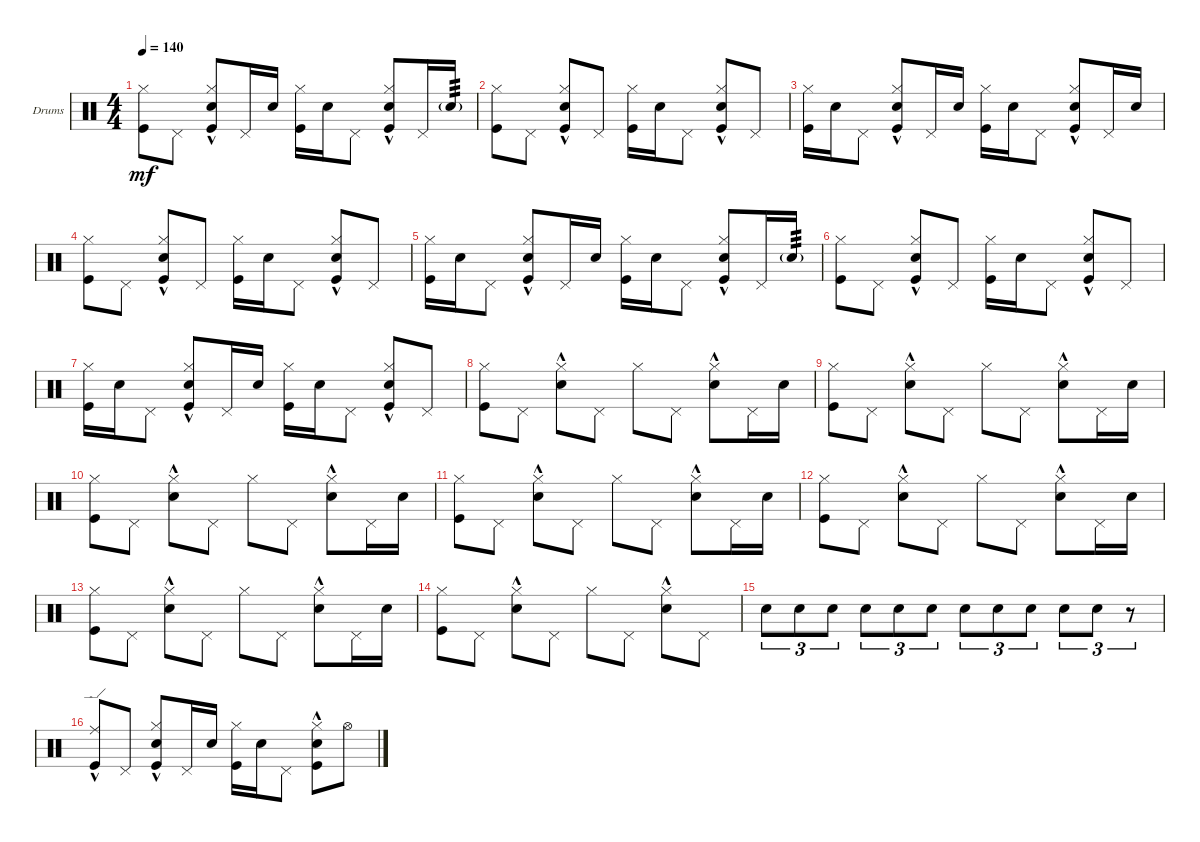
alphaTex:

\defaultSystemsLayout 4
\bracketExtendMode groupsimilarinstruments
\firstSystemTrackNameOrientation horizontal
\otherSystemsTrackNameOrientation horizontal
\track ("Drumkit" "Drums") {instrument percussion}
\staff {score}
\articulation defaults
\ts (4 4)
\tempo 140
\clef neutral
\scale
0.258599
\ks c
("Kick (hit)" "Hi-Hat (closed)").8{dy mf} "Pedal Hi-Hat (hit)".8 ("Hi-Hat (closed)" "Kick (hit)" "Snare (hit) 2"{hac}).8 "Pedal Hi-Hat (hit)".16 "Snare (hit) 2".16 ("Kick (hit)" "Hi-Hat (closed)").16 "Snare (hit) 2".16 "Pedal Hi-Hat (hit)".8 ("Hi-Hat (closed)" "Kick (hit)" "Snare (hit) 2"{hac}).8 "Pedal Hi-Hat (hit)".16 "Snare (hit) 2"{g}.16{tp 3} |
\scale
0.235669 ("Kick (hit)" "Hi-Hat (closed)").8 "Pedal Hi-Hat (hit)".8 ("Hi-Hat (closed)" "Kick (hit)" "Snare (hit) 2"{hac}).8 "Pedal Hi-Hat (hit)".8 ("Kick (hit)" "Hi-Hat (closed)").16 "Snare (hit) 2".16 "Pedal Hi-Hat (hit)".8 ("Hi-Hat (closed)" "Kick (hit)" "Snare (hit) 2"{hac}).8 "Pedal Hi-Hat (hit)".8 |
\scale
0.270064 ("Kick (hit)" "Hi-Hat (closed)").16 "Snare (hit) 2".16 "Pedal Hi-Hat (hit)".8 ("Hi-Hat (closed)" "Kick (hit)" "Snare (hit) 2"{hac}).8 "Pedal Hi-Hat (hit)".16 "Snare (hit) 2".16 ("Kick (hit)" "Hi-Hat (closed)").16 "Snare (hit) 2".16 "Pedal Hi-Hat (hit)".8 ("Hi-Hat (closed)" "Kick (hit)" "Snare (hit) 2"{hac}).8 "Pedal Hi-Hat (hit)".16 "Snare (hit) 2".16 |
\scale
0.235669 ("Kick (hit)" "Hi-Hat (closed)").8 "Pedal Hi-Hat (hit)".8 ("Hi-Hat (closed)" "Kick (hit)" "Snare (hit) 2"{hac}).8 "Pedal Hi-Hat (hit)".8 ("Kick (hit)" "Hi-Hat (closed)").16 "Snare (hit) 2".16 "Pedal Hi-Hat (hit)".8 ("Hi-Hat (closed)" "Kick (hit)" "Snare (hit) 2"{hac}).8 "Pedal Hi-Hat (hit)".8 |
\scale
0.270064 ("Kick (hit)" "Hi-Hat (closed)").16 "Snare (hit) 2".16 "Pedal Hi-Hat (hit)".8 ("Hi-Hat (closed)" "Kick (hit)" "Snare (hit) 2"{hac}).8 "Pedal Hi-Hat (hit)".16 "Snare (hit) 2".16 ("Kick (hit)" "Hi-Hat (closed)").16 "Snare (hit) 2".16 "Pedal Hi-Hat (hit)".8 ("Hi-Hat (closed)" "Kick (hit)" "Snare (hit) 2"{hac}).8 "Pedal Hi-Hat (hit)".16 "Snare (hit) 2"{g}.16{tp 3} |
\scale
0.235669 ("Kick (hit)" "Hi-Hat (closed)").8 "Pedal Hi-Hat (hit)".8 ("Hi-Hat (closed)" "Kick (hit)" "Snare (hit) 2"{hac}).8 "Pedal Hi-Hat (hit)".8 ("Kick (hit)" "Hi-Hat (closed)").16 "Snare (hit) 2".16 "Pedal Hi-Hat (hit)".8 ("Hi-Hat (closed)" "Kick (hit)" "Snare (hit) 2"{hac}).8 "Pedal Hi-Hat (hit)".8 |
\scale
0.258599 ("Kick (hit)" "Hi-Hat (closed)").16 "Snare (hit) 2".16 "Pedal Hi-Hat (hit)".8 ("Hi-Hat (closed)" "Kick (hit)" "Snare (hit) 2"{hac}).8 "Pedal Hi-Hat (hit)".16 "Snare (hit) 2".16 ("Kick (hit)" "Hi-Hat (closed)").16 "Snare (hit) 2".16 "Pedal Hi-Hat (hit)".8 ("Hi-Hat (closed)" "Kick (hit)" "Snare (hit) 2"{hac}).8 "Pedal Hi-Hat (hit)".8 |
\scale
0.235669 ("Kick (hit)" "Hi-Hat (closed)").8 "Pedal Hi-Hat (hit)".8 ("Hi-Hat (closed)" "Snare (hit) 2"{hac}).8 "Pedal Hi-Hat (hit)".8 "Hi-Hat (closed)".8 "Pedal Hi-Hat (hit)".8 ("Hi-Hat (closed)" "Snare (hit) 2"{hac}).8 "Pedal Hi-Hat (hit)".16 "Snare (hit) 2".16 |
\scale
0.25 ("Kick (hit)" "Hi-Hat (closed)").8 "Pedal Hi-Hat (hit)".8 ("Hi-Hat (closed)" "Snare (hit) 2"{hac}).8 "Pedal Hi-Hat (hit)".8 "Hi-Hat (closed)".8 "Pedal Hi-Hat (hit)".8 ("Hi-Hat (closed)" "Snare (hit) 2"{hac}).8 "Pedal Hi-Hat (hit)".16 "Snare (hit) 2".16 |
\scale
0.25 ("Kick (hit)" "Hi-Hat (closed)").8 "Pedal Hi-Hat (hit)".8 ("Hi-Hat (closed)" "Snare (hit) 2"{hac}).8 "Pedal Hi-Hat (hit)".8 "Hi-Hat (closed)".8 "Pedal Hi-Hat (hit)".8 ("Hi-Hat (closed)" "Snare (hit) 2"{hac}).8 "Pedal Hi-Hat (hit)".16 "Snare (hit) 2".16 |
\scale
0.25 ("Kick (hit)" "Hi-Hat (closed)").8 "Pedal Hi-Hat (hit)".8 ("Hi-Hat (closed)" "Snare (hit) 2"{hac}).8 "Pedal Hi-Hat (hit)".8 "Hi-Hat (closed)".8 "Pedal Hi-Hat (hit)".8 ("Hi-Hat (closed)" "Snare (hit) 2"{hac}).8 "Pedal Hi-Hat (hit)".16 "Snare (hit) 2".16 |
\scale
0.25 ("Kick (hit)" "Hi-Hat (closed)").8 "Pedal Hi-Hat (hit)".8 ("Hi-Hat (closed)" "Snare (hit) 2"{hac}).8 "Pedal Hi-Hat (hit)".8 "Hi-Hat (closed)".8 "Pedal Hi-Hat (hit)".8 ("Hi-Hat (closed)" "Snare (hit) 2"{hac}).8 "Pedal Hi-Hat (hit)".16 "Snare (hit) 2".16 |
\scale
0.241199 ("Kick (hit)" "Hi-Hat (closed)").8 "Pedal Hi-Hat (hit)".8 ("Hi-Hat (closed)" "Snare (hit) 2"{hac}).8 "Pedal Hi-Hat (hit)".8 "Hi-Hat (closed)".8 "Pedal Hi-Hat (hit)".8 ("Hi-Hat (closed)" "Snare (hit) 2"{hac}).8 "Pedal Hi-Hat (hit)".16 "Snare (hit) 2".16 |
\scale
0.208605 ("Kick (hit)" "Hi-Hat (closed)").8 "Pedal Hi-Hat (hit)".8 ("Hi-Hat (closed)" "Snare (hit) 2"{hac}).8 "Pedal Hi-Hat (hit)".8 "Hi-Hat (closed)".8 "Pedal Hi-Hat (hit)".8 ("Hi-Hat (closed)" "Snare (hit) 2"{hac}).8 "Pedal Hi-Hat (hit)".8 |
\scale
0.297262 "Snare (hit) 2".8{tu (3 2)} "Snare (hit) 2".8{tu (3 2)} "Snare (hit) 2".8{tu (3 2)} "Snare (hit) 2".8{tu (3 2)} "Snare (hit) 2".8{tu (3 2)} "Snare (hit) 2".8{tu (3 2)} "Snare (hit) 2".8{tu (3 2)} "Snare (hit) 2".8{tu (3 2)} "Snare (hit) 2".8{tu (3 2)} "Snare (hit) 2".8{tu (3 2)} "Snare (hit) 2".8{tu (3 2)} r.8{tu (3 2)} |
\scale
0.252934 ("Kick (hit)" "Ride (edge)"{hac}).8 "Pedal Hi-Hat (hit)".8 ("Hi-Hat (closed)" "Kick (hit)" "Snare (hit) 2"{hac}).8 "Pedal Hi-Hat (hit)".16 "Snare (hit) 2".16 ("Kick (hit)" "Hi-Hat (closed)").16 "Snare (hit) 2".16 "Pedal Hi-Hat (hit)".8 ("Hi-Hat (closed)" "Kick (hit)" "Snare (hit) 2"{hac}).8 "Hi-Hat (open)".8
